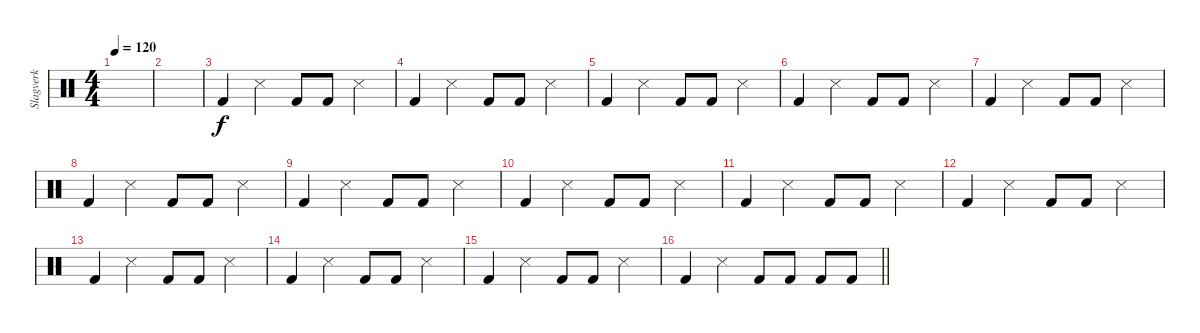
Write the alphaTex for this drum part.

\track ("Slagverk" "Slagverk") {instrument percussion}
\staff {score}
\articulation defaults
\ts (4 4)
\tempo 120
\clef neutral
\ks c
|
|
"Kick (hit) 2".4 "Snare (side stick) 3".4 "Kick (hit) 2".8 "Kick (hit) 2".8 "Snare (side stick) 3".4 |
"Kick (hit) 2".4 "Snare (side stick) 3".4 "Kick (hit) 2".8 "Kick (hit) 2".8 "Snare (side stick) 3".4 |
"Kick (hit) 2".4 "Snare (side stick) 3".4 "Kick (hit) 2".8 "Kick (hit) 2".8 "Snare (side stick) 3".4 |
"Kick (hit) 2".4 "Snare (side stick) 3".4 "Kick (hit) 2".8 "Kick (hit) 2".8 "Snare (side stick) 3".4 |
"Kick (hit) 2".4 "Snare (side stick) 3".4 "Kick (hit) 2".8 "Kick (hit) 2".8 "Snare (side stick) 3".4 |
"Kick (hit) 2".4 "Snare (side stick) 3".4 "Kick (hit) 2".8 "Kick (hit) 2".8 "Snare (side stick) 3".4 |
"Kick (hit) 2".4 "Snare (side stick) 3".4 "Kick (hit) 2".8 "Kick (hit) 2".8 "Snare (side stick) 3".4 |
"Kick (hit) 2".4 "Snare (side stick) 3".4 "Kick (hit) 2".8 "Kick (hit) 2".8 "Snare (side stick) 3".4 |
"Kick (hit) 2".4 "Snare (side stick) 3".4 "Kick (hit) 2".8 "Kick (hit) 2".8 "Snare (side stick) 3".4 |
"Kick (hit) 2".4 "Snare (side stick) 3".4 "Kick (hit) 2".8 "Kick (hit) 2".8 "Snare (side stick) 3".4 |
"Kick (hit) 2".4 "Snare (side stick) 3".4 "Kick (hit) 2".8 "Kick (hit) 2".8 "Snare (side stick) 3".4 |
"Kick (hit) 2".4 "Snare (side stick) 3".4 "Kick (hit) 2".8 "Kick (hit) 2".8 "Snare (side stick) 3".4 |
"Kick (hit) 2".4 "Snare (side stick) 3".4 "Kick (hit) 2".8 "Kick (hit) 2".8 "Snare (side stick) 3".4 |
\barLineRight lightlight "Kick (hit) 2".4 "Snare (side stick) 3".4 "Kick (hit) 2".8 "Kick (hit) 2".8 "Kick (hit) 2".8 "Kick (hit) 2".8
